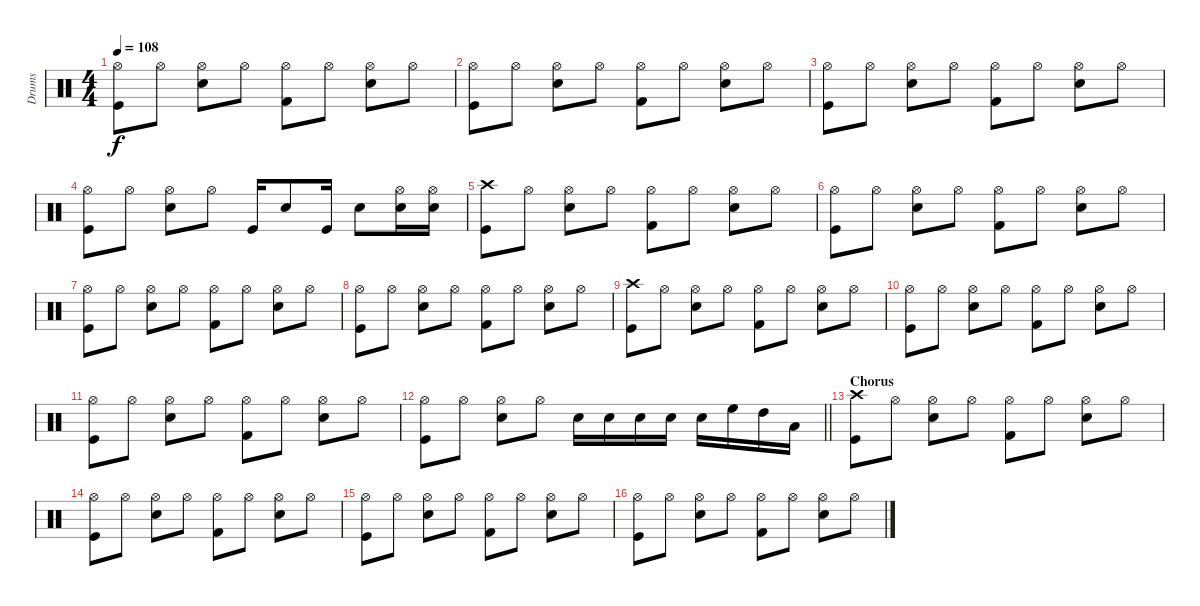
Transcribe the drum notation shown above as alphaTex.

\track ("Drums" "Drums") {instrument percussion}
\staff {score}
\articulation defaults
\ts (4 4)
\tempo 108
\clef neutral
\ks c
("Hi-Hat (open)" "Kick (hit)").8{dy f} "Hi-Hat (open)".8 ("Hi-Hat (open)" "Snare (hit) 2").8 "Hi-Hat (open)".8 ("Hi-Hat (open)" "Kick (hit) 2").8 "Hi-Hat (open)".8 ("Hi-Hat (open)" "Snare (hit) 2").8 "Hi-Hat (open)".8 |
("Hi-Hat (open)" "Kick (hit)").8 "Hi-Hat (open)".8 ("Hi-Hat (open)" "Snare (hit) 2").8 "Hi-Hat (open)".8 ("Hi-Hat (open)" "Kick (hit) 2").8 "Hi-Hat (open)".8 ("Hi-Hat (open)" "Snare (hit) 2").8 "Hi-Hat (open)".8 |
("Hi-Hat (open)" "Kick (hit)").8 "Hi-Hat (open)".8 ("Hi-Hat (open)" "Snare (hit) 2").8 "Hi-Hat (open)".8 ("Hi-Hat (open)" "Kick (hit) 2").8 "Hi-Hat (open)".8 ("Hi-Hat (open)" "Snare (hit) 2").8 "Hi-Hat (open)".8 |
("Kick (hit)" "Hi-Hat (open)").8 "Hi-Hat (open)".8 ("Snare (hit) 2" "Hi-Hat (open)").8 "Hi-Hat (open)".8 "Kick (hit)".16 "Snare (hit) 2".8 "Kick (hit)".16 "Snare (hit) 2".8 ("Hi-Hat (open)" "Snare (hit) 2").16 ("Hi-Hat (open)" "Snare (hit) 2").16 |
("Crash high (hit)" "Kick (hit)").8 "Hi-Hat (open)".8 ("Hi-Hat (open)" "Snare (hit) 2").8 "Hi-Hat (open)".8 ("Hi-Hat (open)" "Kick (hit) 2").8 "Hi-Hat (open)".8 ("Hi-Hat (open)" "Snare (hit) 2").8 "Hi-Hat (open)".8 |
("Hi-Hat (open)" "Kick (hit)").8 "Hi-Hat (open)".8 ("Hi-Hat (open)" "Snare (hit) 2").8 "Hi-Hat (open)".8 ("Hi-Hat (open)" "Kick (hit) 2").8 "Hi-Hat (open)".8 ("Hi-Hat (open)" "Snare (hit) 2").8 "Hi-Hat (open)".8 |
("Hi-Hat (open)" "Kick (hit)").8 "Hi-Hat (open)".8 ("Hi-Hat (open)" "Snare (hit) 2").8 "Hi-Hat (open)".8 ("Hi-Hat (open)" "Kick (hit) 2").8 "Hi-Hat (open)".8 ("Hi-Hat (open)" "Snare (hit) 2").8 "Hi-Hat (open)".8 |
("Hi-Hat (open)" "Kick (hit)").8 "Hi-Hat (open)".8 ("Hi-Hat (open)" "Snare (hit) 2").8 "Hi-Hat (open)".8 ("Hi-Hat (open)" "Kick (hit) 2").8 "Hi-Hat (open)".8 ("Hi-Hat (open)" "Snare (hit) 2").8 "Hi-Hat (open)".8 |
("Crash high (hit)" "Kick (hit)").8 "Hi-Hat (open)".8 ("Hi-Hat (open)" "Snare (hit) 2").8 "Hi-Hat (open)".8 ("Hi-Hat (open)" "Kick (hit) 2").8 "Hi-Hat (open)".8 ("Hi-Hat (open)" "Snare (hit) 2").8 "Hi-Hat (open)".8 |
("Hi-Hat (open)" "Kick (hit)").8 "Hi-Hat (open)".8 ("Hi-Hat (open)" "Snare (hit) 2").8 "Hi-Hat (open)".8 ("Hi-Hat (open)" "Kick (hit) 2").8 "Hi-Hat (open)".8 ("Hi-Hat (open)" "Snare (hit) 2").8 "Hi-Hat (open)".8 |
("Hi-Hat (open)" "Kick (hit)").8 "Hi-Hat (open)".8 ("Hi-Hat (open)" "Snare (hit) 2").8 "Hi-Hat (open)".8 ("Hi-Hat (open)" "Kick (hit) 2").8 "Hi-Hat (open)".8 ("Hi-Hat (open)" "Snare (hit) 2").8 "Hi-Hat (open)".8 |
\barLineRight lightlight
("Kick (hit)" "Hi-Hat (open)").8 "Hi-Hat (open)".8 ("Snare (hit) 2" "Hi-Hat (open)").8 "Hi-Hat (open)".8 "Snare (hit) 2".16 "Snare (hit) 2".16 "Snare (hit) 2".16 "Snare (hit) 2".16 "Snare (hit) 2".16 "High Floor Tom (hit)".16 "High Tom (hit)".16 "Low Floor Tom (hit)".16 |
\section ("" "Chorus")
("Crash high (hit)" "Kick (hit)").8 "Hi-Hat (open)".8 ("Hi-Hat (open)" "Snare (hit) 2").8 "Hi-Hat (open)".8 ("Hi-Hat (open)" "Kick (hit) 2").8 "Hi-Hat (open)".8 ("Hi-Hat (open)" "Snare (hit) 2").8 "Hi-Hat (open)".8 |
("Hi-Hat (open)" "Kick (hit)").8 "Hi-Hat (open)".8 ("Hi-Hat (open)" "Snare (hit) 2").8 "Hi-Hat (open)".8 ("Hi-Hat (open)" "Kick (hit) 2").8 "Hi-Hat (open)".8 ("Hi-Hat (open)" "Snare (hit) 2").8 "Hi-Hat (open)".8 |
("Hi-Hat (open)" "Kick (hit)").8 "Hi-Hat (open)".8 ("Hi-Hat (open)" "Snare (hit) 2").8 "Hi-Hat (open)".8 ("Hi-Hat (open)" "Kick (hit) 2").8 "Hi-Hat (open)".8 ("Hi-Hat (open)" "Snare (hit) 2").8 "Hi-Hat (open)".8 |
("Hi-Hat (open)" "Kick (hit)").8 "Hi-Hat (open)".8 ("Hi-Hat (open)" "Snare (hit) 2").8 "Hi-Hat (open)".8 ("Hi-Hat (open)" "Kick (hit) 2").8 "Hi-Hat (open)".8 ("Hi-Hat (open)" "Snare (hit) 2").8 "Hi-Hat (open)".8
